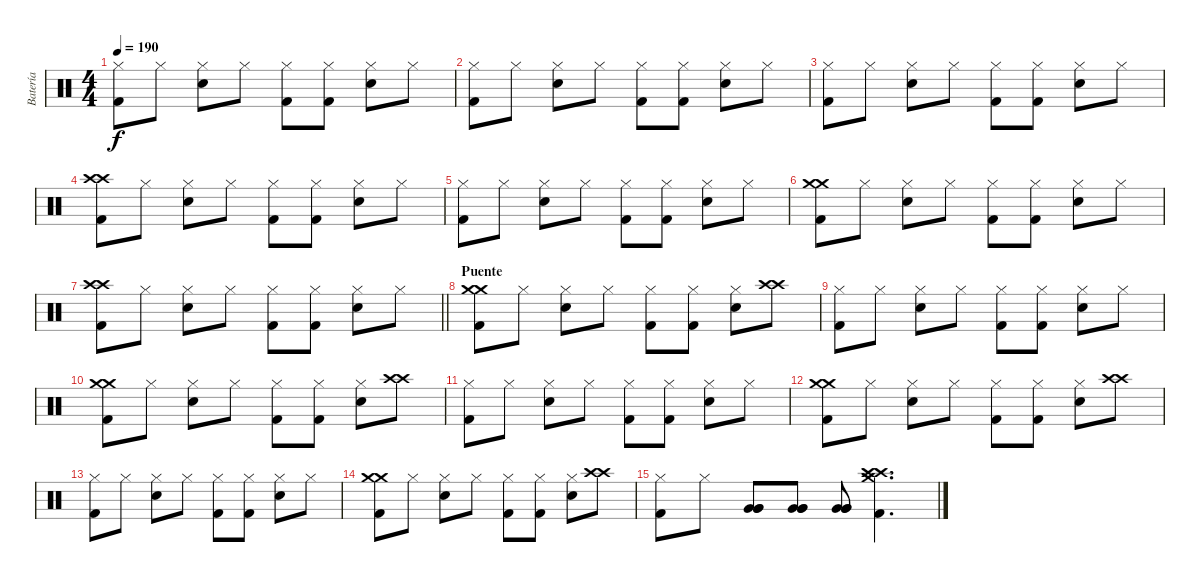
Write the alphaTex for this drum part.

\track ("Batería" "Batería") {instrument percussion}
\staff {score}
\articulation defaults
\ts (4 4)
\tempo 190
\clef neutral
\ks c
("Hi-Hat (closed)" "Kick (hit) 2").8{dy f} "Hi-Hat (closed)".8 ("Hi-Hat (closed)" "Snare (hit) 2").8 "Hi-Hat (closed)".8 ("Hi-Hat (closed)" "Kick (hit) 2").8 ("Hi-Hat (closed)" "Kick (hit) 2").8 ("Hi-Hat (closed)" "Snare (hit) 2").8 "Hi-Hat (closed)".8 |
("Hi-Hat (closed)" "Kick (hit) 2").8 "Hi-Hat (closed)".8 ("Hi-Hat (closed)" "Snare (hit) 2").8 "Hi-Hat (closed)".8 ("Hi-Hat (closed)" "Kick (hit) 2").8 ("Hi-Hat (closed)" "Kick (hit) 2").8 ("Hi-Hat (closed)" "Snare (hit) 2").8 "Hi-Hat (closed)".8 |
("Hi-Hat (closed)" "Kick (hit) 2").8 "Hi-Hat (closed)".8 ("Hi-Hat (closed)" "Snare (hit) 2").8 "Hi-Hat (closed)".8 ("Hi-Hat (closed)" "Kick (hit) 2").8 ("Hi-Hat (closed)" "Kick (hit) 2").8 ("Hi-Hat (closed)" "Snare (hit) 2").8 "Hi-Hat (closed)".8 |
("Crash high (hit)" "Crash high (hit)" "Kick (hit) 2").8 "Hi-Hat (closed)".8 ("Hi-Hat (closed)" "Snare (hit) 2").8 "Hi-Hat (closed)".8 ("Hi-Hat (closed)" "Kick (hit) 2").8 ("Hi-Hat (closed)" "Kick (hit) 2").8 ("Hi-Hat (closed)" "Snare (hit) 2").8 "Hi-Hat (closed)".8 |
("Hi-Hat (closed)" "Kick (hit) 2").8 "Hi-Hat (closed)".8 ("Hi-Hat (closed)" "Snare (hit) 2").8 "Hi-Hat (closed)".8 ("Hi-Hat (closed)" "Kick (hit) 2").8 ("Hi-Hat (closed)" "Kick (hit) 2").8 ("Hi-Hat (closed)" "Snare (hit) 2").8 "Hi-Hat (closed)".8 |
("Crash medium (hit)" "Crash medium (hit)" "Kick (hit) 2").8 "Hi-Hat (closed)".8 ("Hi-Hat (closed)" "Snare (hit) 2").8 "Hi-Hat (closed)".8 ("Hi-Hat (closed)" "Kick (hit) 2").8 ("Hi-Hat (closed)" "Kick (hit) 2").8 ("Hi-Hat (closed)" "Snare (hit) 2").8 "Hi-Hat (closed)".8 |
\barLineRight lightlight
("Crash high (hit)" "Crash high (hit)" "Kick (hit) 2").8 "Hi-Hat (closed)".8 ("Hi-Hat (closed)" "Snare (hit) 2").8 "Hi-Hat (closed)".8 ("Hi-Hat (closed)" "Kick (hit) 2").8 ("Hi-Hat (closed)" "Kick (hit) 2").8 ("Hi-Hat (closed)" "Snare (hit) 2").8 "Hi-Hat (closed)".8 |
\section ("" "Puente")
("Crash medium (hit)" "Crash medium (hit)" "Kick (hit) 2").8 "Hi-Hat (closed)".8 ("Hi-Hat (closed)" "Snare (hit) 2").8 "Hi-Hat (closed)".8 ("Hi-Hat (closed)" "Kick (hit) 2").8 ("Hi-Hat (closed)" "Kick (hit) 2").8 ("Hi-Hat (closed)" "Snare (hit) 2").8 ("Crash high (hit)" "Crash high (hit)").8 |
("Hi-Hat (closed)" "Kick (hit) 2").8 "Hi-Hat (closed)".8 ("Hi-Hat (closed)" "Snare (hit) 2").8 "Hi-Hat (closed)".8 ("Hi-Hat (closed)" "Kick (hit) 2").8 ("Hi-Hat (closed)" "Kick (hit) 2").8 ("Hi-Hat (closed)" "Snare (hit) 2").8 "Hi-Hat (closed)".8 |
("Crash medium (hit)" "Crash medium (hit)" "Kick (hit) 2").8 "Hi-Hat (closed)".8 ("Hi-Hat (closed)" "Snare (hit) 2").8 "Hi-Hat (closed)".8 ("Hi-Hat (closed)" "Kick (hit) 2").8 ("Hi-Hat (closed)" "Kick (hit) 2").8 ("Hi-Hat (closed)" "Snare (hit) 2").8 ("Crash high (hit)" "Crash high (hit)").8 |
("Hi-Hat (closed)" "Kick (hit) 2").8 "Hi-Hat (closed)".8 ("Hi-Hat (closed)" "Snare (hit) 2").8 "Hi-Hat (closed)".8 ("Hi-Hat (closed)" "Kick (hit) 2").8 ("Hi-Hat (closed)" "Kick (hit) 2").8 ("Hi-Hat (closed)" "Snare (hit) 2").8 "Hi-Hat (closed)".8 |
("Crash medium (hit)" "Crash medium (hit)" "Kick (hit) 2").8 "Hi-Hat (closed)".8 ("Hi-Hat (closed)" "Snare (hit) 2").8 "Hi-Hat (closed)".8 ("Hi-Hat (closed)" "Kick (hit) 2").8 ("Hi-Hat (closed)" "Kick (hit) 2").8 ("Hi-Hat (closed)" "Snare (hit) 2").8 ("Crash high (hit)" "Crash high (hit)").8 |
("Hi-Hat (closed)" "Kick (hit) 2").8 "Hi-Hat (closed)".8 ("Hi-Hat (closed)" "Snare (hit) 2").8 "Hi-Hat (closed)".8 ("Hi-Hat (closed)" "Kick (hit) 2").8 ("Hi-Hat (closed)" "Kick (hit) 2").8 ("Hi-Hat (closed)" "Snare (hit) 2").8 "Hi-Hat (closed)".8 |
("Crash medium (hit)" "Crash medium (hit)" "Kick (hit) 2").8 "Hi-Hat (closed)".8 ("Hi-Hat (closed)" "Snare (hit) 2").8 "Hi-Hat (closed)".8 ("Hi-Hat (closed)" "Kick (hit) 2").8 ("Hi-Hat (closed)" "Kick (hit) 2").8 ("Hi-Hat (closed)" "Snare (hit) 2").8 ("Crash high (hit)" "Crash high (hit)").8 |
("Hi-Hat (closed)" "Kick (hit) 2").8 "Hi-Hat (closed)".8 ("Very Low Tom (hit)" "Very Low Tom (hit)" "Very Low Tom (hit)").8 ("Very Low Tom (hit)" "Very Low Tom (hit)" "Very Low Tom (hit)").8 ("Very Low Tom (hit)" "Very Low Tom (hit)" "Very Low Tom (hit)").8 ("Crash high (hit)" "Crash medium (hit)" "Crash high (hit)" "Kick (hit) 2").4{d}
